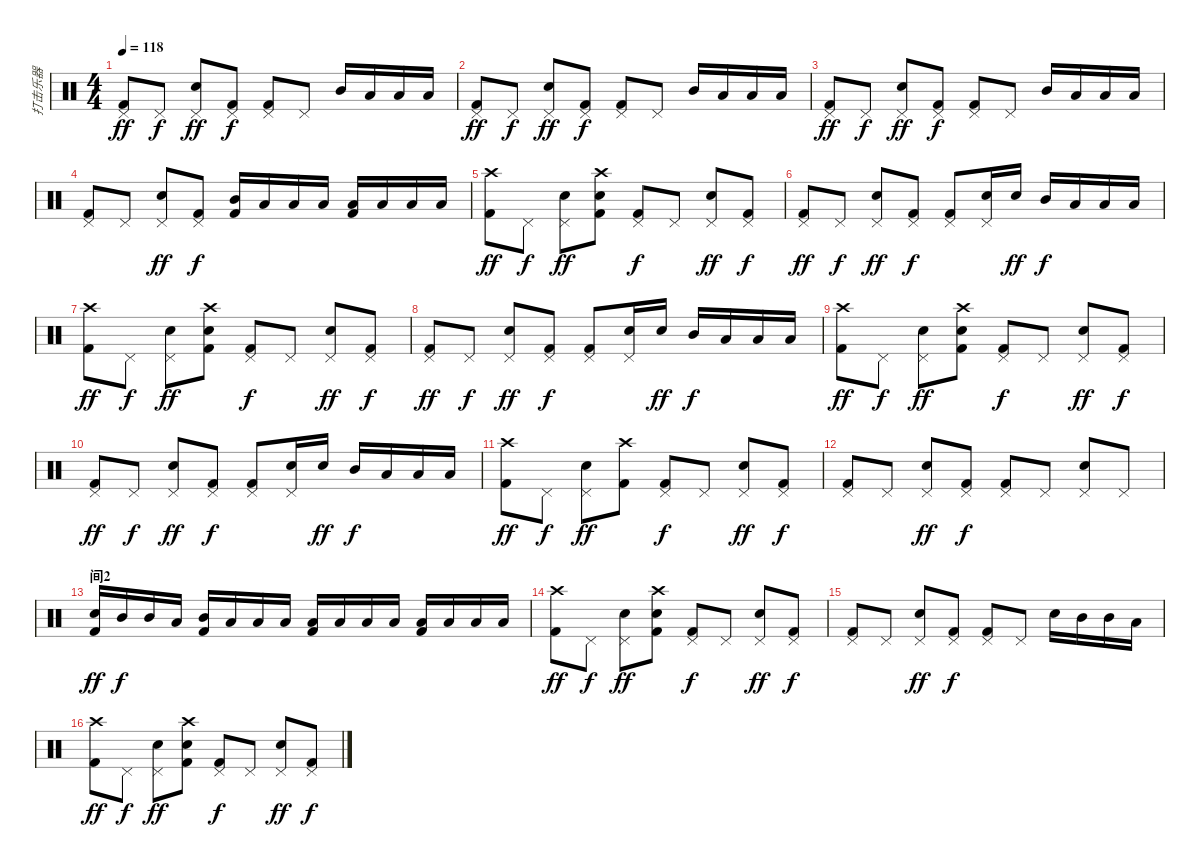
\track ("打击乐器" "打击乐器") {instrument percussion}
\staff {score}
\articulation defaults
\ts (4 4)
\tempo 118
\clef neutral
\ks c
("Pedal Hi-Hat (hit)" "Kick (hit) 2").8{dy ff} "Pedal Hi-Hat (hit)".8{dy f} ("Pedal Hi-Hat (hit)" "Snare (hit) 2").8{dy ff} ("Pedal Hi-Hat (hit)" "Kick (hit) 2").8{dy f} ("Pedal Hi-Hat (hit)" "Kick (hit) 2").8 "Pedal Hi-Hat (hit)".8 "Mid Tom (hit)".16 "Low Tom (hit)".16 "Low Floor Tom (hit)".16 "Low Floor Tom (hit)".16 |
("Pedal Hi-Hat (hit)" "Kick (hit) 2").8{dy ff} "Pedal Hi-Hat (hit)".8{dy f} ("Pedal Hi-Hat (hit)" "Snare (hit) 2").8{dy ff} ("Pedal Hi-Hat (hit)" "Kick (hit) 2").8{dy f} ("Pedal Hi-Hat (hit)" "Kick (hit) 2").8 "Pedal Hi-Hat (hit)".8 "Mid Tom (hit)".16 "Low Tom (hit)".16 "Low Floor Tom (hit)".16 "Low Floor Tom (hit)".16 |
("Pedal Hi-Hat (hit)" "Kick (hit) 2").8{dy ff} "Pedal Hi-Hat (hit)".8{dy f} ("Pedal Hi-Hat (hit)" "Snare (hit) 2").8{dy ff} ("Pedal Hi-Hat (hit)" "Kick (hit) 2").8{dy f} ("Pedal Hi-Hat (hit)" "Kick (hit) 2").8 "Pedal Hi-Hat (hit)".8 "Mid Tom (hit)".16 "Low Tom (hit)".16 "Low Floor Tom (hit)".16 "Low Floor Tom (hit)".16 |
("Pedal Hi-Hat (hit)" "Kick (hit) 2").8 "Pedal Hi-Hat (hit)".8 ("Pedal Hi-Hat (hit)" "Snare (hit) 2").8{dy ff} ("Pedal Hi-Hat (hit)" "Kick (hit) 2").8{dy f} ("Mid Tom (hit)" "Kick (hit) 2").16 "Low Tom (hit)".16 "Low Tom (hit)".16 "Low Tom (hit)".16 ("Low Floor Tom (hit)" "Kick (hit) 2").16 "Low Floor Tom (hit)".16 "Low Floor Tom (hit)".16 "Low Floor Tom (hit)".16 |
("Crash high (hit)" "Kick (hit) 2").8{dy ff} "Pedal Hi-Hat (hit)".8{dy f} ("Pedal Hi-Hat (hit)" "Snare (hit) 2").8{dy ff} ("Crash high (hit)" "Snare (hit) 2" "Kick (hit) 2").8 ("Pedal Hi-Hat (hit)" "Kick (hit) 2").8{dy f} "Pedal Hi-Hat (hit)".8 ("Pedal Hi-Hat (hit)" "Snare (hit) 2").8{dy ff} ("Pedal Hi-Hat (hit)" "Kick (hit) 2").8{dy f} |
("Pedal Hi-Hat (hit)" "Kick (hit) 2").8{dy ff} "Pedal Hi-Hat (hit)".8{dy f} ("Pedal Hi-Hat (hit)" "Snare (hit) 2").8{dy ff} ("Pedal Hi-Hat (hit)" "Kick (hit) 2").8{dy f} ("Pedal Hi-Hat (hit)" "Kick (hit) 2").8 ("Pedal Hi-Hat (hit)" "Snare (hit) 2").16 "Snare (hit) 2".16{dy ff} "Mid Tom (hit)".16{dy f} "Low Tom (hit)".16 "Low Floor Tom (hit)".16 "Low Floor Tom (hit)".16 |
("Crash high (hit)" "Kick (hit) 2").8{dy ff} "Pedal Hi-Hat (hit)".8{dy f} ("Pedal Hi-Hat (hit)" "Snare (hit) 2").8{dy ff} ("Crash high (hit)" "Snare (hit) 2" "Kick (hit) 2").8 ("Pedal Hi-Hat (hit)" "Kick (hit) 2").8{dy f} "Pedal Hi-Hat (hit)".8 ("Pedal Hi-Hat (hit)" "Snare (hit) 2").8{dy ff} ("Pedal Hi-Hat (hit)" "Kick (hit) 2").8{dy f} |
("Pedal Hi-Hat (hit)" "Kick (hit) 2").8{dy ff} "Pedal Hi-Hat (hit)".8{dy f} ("Pedal Hi-Hat (hit)" "Snare (hit) 2").8{dy ff} ("Pedal Hi-Hat (hit)" "Kick (hit) 2").8{dy f} ("Pedal Hi-Hat (hit)" "Kick (hit) 2").8 ("Pedal Hi-Hat (hit)" "Snare (hit) 2").16 "Snare (hit) 2".16{dy ff} "Mid Tom (hit)".16{dy f} "Low Tom (hit)".16 "Low Floor Tom (hit)".16 "Low Floor Tom (hit)".16 |
("Crash high (hit)" "Kick (hit) 2").8{dy ff} "Pedal Hi-Hat (hit)".8{dy f} ("Pedal Hi-Hat (hit)" "Snare (hit) 2").8{dy ff} ("Crash high (hit)" "Snare (hit) 2" "Kick (hit) 2").8 ("Pedal Hi-Hat (hit)" "Kick (hit) 2").8{dy f} "Pedal Hi-Hat (hit)".8 ("Pedal Hi-Hat (hit)" "Snare (hit) 2").8{dy ff} ("Pedal Hi-Hat (hit)" "Kick (hit) 2").8{dy f} |
("Pedal Hi-Hat (hit)" "Kick (hit) 2").8{dy ff} "Pedal Hi-Hat (hit)".8{dy f} ("Pedal Hi-Hat (hit)" "Snare (hit) 2").8{dy ff} ("Pedal Hi-Hat (hit)" "Kick (hit) 2").8{dy f} ("Pedal Hi-Hat (hit)" "Kick (hit) 2").8 ("Pedal Hi-Hat (hit)" "Snare (hit) 2").16 "Snare (hit) 2".16{dy ff} "Mid Tom (hit)".16{dy f} "Low Tom (hit)".16 "Low Floor Tom (hit)".16 "Low Floor Tom (hit)".16 |
("Crash high (hit)" "Kick (hit) 2").8{dy ff} "Pedal Hi-Hat (hit)".8{dy f} ("Pedal Hi-Hat (hit)" "Snare (hit) 2").8{dy ff} ("Crash high (hit)" "Kick (hit) 2").8 ("Pedal Hi-Hat (hit)" "Kick (hit) 2").8{dy f} "Pedal Hi-Hat (hit)".8 ("Pedal Hi-Hat (hit)" "Snare (hit) 2").8{dy ff} ("Pedal Hi-Hat (hit)" "Kick (hit) 2").8{dy f} |
("Pedal Hi-Hat (hit)" "Kick (hit) 2").8 "Pedal Hi-Hat (hit)".8 ("Pedal Hi-Hat (hit)" "Snare (hit) 2").8{dy ff} ("Pedal Hi-Hat (hit)" "Kick (hit) 2").8{dy f} ("Pedal Hi-Hat (hit)" "Kick (hit) 2").8 "Pedal Hi-Hat (hit)".8 ("Pedal Hi-Hat (hit)" "Snare (hit) 2").8 "Pedal Hi-Hat (hit)".8 |
\section ("" "间2")
("Snare (hit) 2" "Kick (hit) 2").16{dy ff} "Mid Tom (hit)".16{dy f} "Mid Tom (hit)".16 "Low Tom (hit)".16 ("Mid Tom (hit)" "Kick (hit) 2").16 "Low Tom (hit)".16 "Low Tom (hit)".16 "Low Tom (hit)".16 ("Low Tom (hit)" "Kick (hit) 2").16 "Low Floor Tom (hit)".16 "Low Floor Tom (hit)".16 "Low Floor Tom (hit)".16 ("Low Floor Tom (hit)" "Kick (hit) 2").16 "Low Floor Tom (hit)".16 "Low Floor Tom (hit)".16 "Low Floor Tom (hit)".16 |
("Crash high (hit)" "Kick (hit) 2").8{dy ff} "Pedal Hi-Hat (hit)".8{dy f} ("Pedal Hi-Hat (hit)" "Snare (hit) 2").8{dy ff} ("Crash high (hit)" "Snare (hit) 2" "Kick (hit) 2").8 ("Pedal Hi-Hat (hit)" "Kick (hit) 2").8{dy f} "Pedal Hi-Hat (hit)".8 ("Pedal Hi-Hat (hit)" "Snare (hit) 2").8{dy ff} ("Pedal Hi-Hat (hit)" "Kick (hit) 2").8{dy f} |
("Pedal Hi-Hat (hit)" "Kick (hit) 2").8 "Pedal Hi-Hat (hit)".8 ("Pedal Hi-Hat (hit)" "Snare (hit) 2").8{dy ff} ("Pedal Hi-Hat (hit)" "Kick (hit) 2").8{dy f} ("Pedal Hi-Hat (hit)" "Kick (hit) 2").8 "Pedal Hi-Hat (hit)".8 "Snare (hit) 2".16 "Mid Tom (hit)".16 "Mid Tom (hit)".16 "Low Tom (hit)".16 |
("Crash high (hit)" "Kick (hit) 2").8{dy ff} "Pedal Hi-Hat (hit)".8{dy f} ("Pedal Hi-Hat (hit)" "Snare (hit) 2").8{dy ff} ("Crash high (hit)" "Snare (hit) 2" "Kick (hit) 2").8 ("Pedal Hi-Hat (hit)" "Kick (hit) 2").8{dy f} "Pedal Hi-Hat (hit)".8 ("Pedal Hi-Hat (hit)" "Snare (hit) 2").8{dy ff} ("Pedal Hi-Hat (hit)" "Kick (hit) 2").8{dy f}
